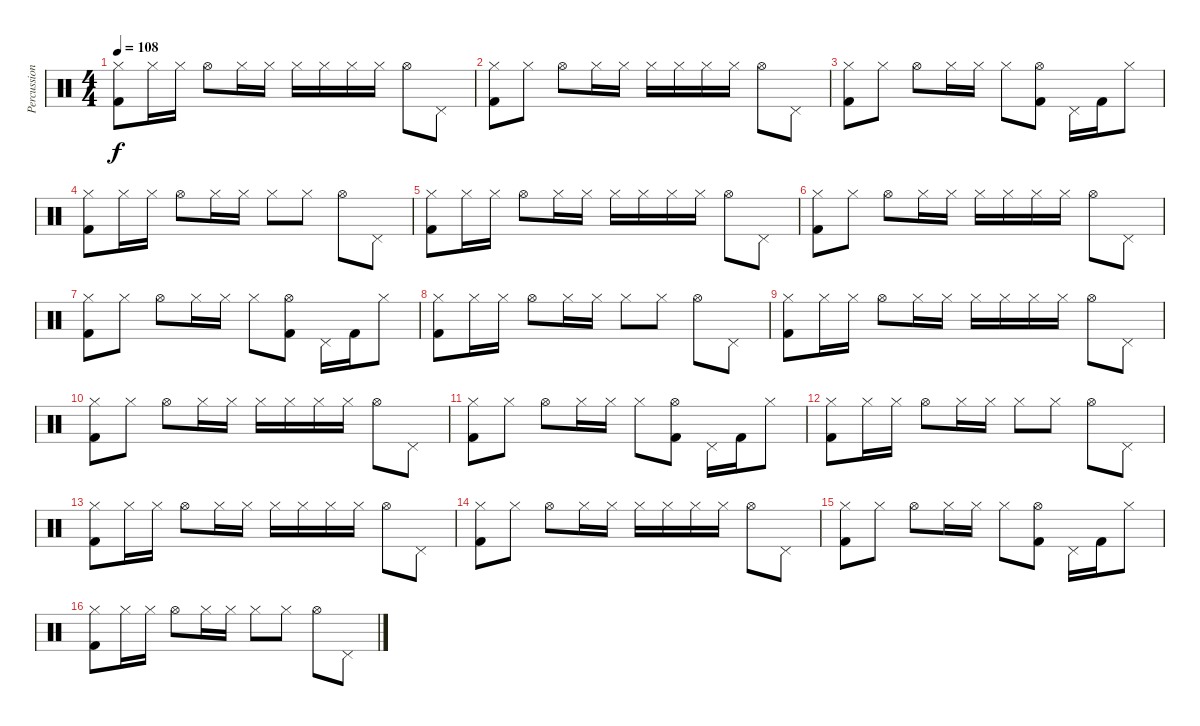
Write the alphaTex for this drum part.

\track ("Percussion" "Percussion") {instrument percussion}
\staff {score}
\articulation defaults
\ts (4 4)
\tempo 108
\clef neutral
\ks c
("Hi-Hat (closed)" "Kick (hit) 2").8{dy f} "Hi-Hat (closed)".16 "Hi-Hat (closed)".16 "Hi-Hat (open)".8 "Hi-Hat (closed)".16 "Hi-Hat (closed)".16 "Hi-Hat (closed)".16 "Hi-Hat (closed)".16 "Hi-Hat (closed)".16 "Hi-Hat (closed)".16 "Hi-Hat (open)".8 "Pedal Hi-Hat (hit)".8 |
("Hi-Hat (closed)" "Kick (hit) 2").8 "Hi-Hat (closed)".8 "Hi-Hat (open)".8 "Hi-Hat (closed)".16 "Hi-Hat (closed)".16 "Hi-Hat (closed)".16 "Hi-Hat (closed)".16 "Hi-Hat (closed)".16 "Hi-Hat (closed)".16 "Hi-Hat (open)".8 "Pedal Hi-Hat (hit)".8 |
("Hi-Hat (closed)" "Kick (hit) 2").8 "Hi-Hat (closed)".8 "Hi-Hat (open)".8 "Hi-Hat (closed)".16 "Hi-Hat (closed)".16 "Hi-Hat (closed)".8 ("Hi-Hat (open)" "Kick (hit) 2").8 "Pedal Hi-Hat (hit)".16 "Kick (hit) 2".16 "Hi-Hat (closed)".8 |
("Hi-Hat (closed)" "Kick (hit) 2").8{volume 7} "Hi-Hat (closed)".16 "Hi-Hat (closed)".16 "Hi-Hat (open)".8 "Hi-Hat (closed)".16 "Hi-Hat (closed)".16 "Hi-Hat (closed)".8 "Hi-Hat (closed)".8 "Hi-Hat (open)".8 "Pedal Hi-Hat (hit)".8 |
("Hi-Hat (closed)" "Kick (hit) 2").8 "Hi-Hat (closed)".16 "Hi-Hat (closed)".16 "Hi-Hat (open)".8 "Hi-Hat (closed)".16 "Hi-Hat (closed)".16 "Hi-Hat (closed)".16 "Hi-Hat (closed)".16 "Hi-Hat (closed)".16 "Hi-Hat (closed)".16 "Hi-Hat (open)".8 "Pedal Hi-Hat (hit)".8 |
("Hi-Hat (closed)" "Kick (hit) 2").8 "Hi-Hat (closed)".8 "Hi-Hat (open)".8 "Hi-Hat (closed)".16 "Hi-Hat (closed)".16 "Hi-Hat (closed)".16 "Hi-Hat (closed)".16 "Hi-Hat (closed)".16 "Hi-Hat (closed)".16 "Hi-Hat (open)".8 "Pedal Hi-Hat (hit)".8 |
("Hi-Hat (closed)" "Kick (hit) 2").8 "Hi-Hat (closed)".8 "Hi-Hat (open)".8 "Hi-Hat (closed)".16 "Hi-Hat (closed)".16 "Hi-Hat (closed)".8 ("Hi-Hat (open)" "Kick (hit) 2").8 "Pedal Hi-Hat (hit)".16 "Kick (hit) 2".16 "Hi-Hat (closed)".8 |
("Hi-Hat (closed)" "Kick (hit) 2").8{volume 7} "Hi-Hat (closed)".16 "Hi-Hat (closed)".16 "Hi-Hat (open)".8 "Hi-Hat (closed)".16 "Hi-Hat (closed)".16 "Hi-Hat (closed)".8 "Hi-Hat (closed)".8 "Hi-Hat (open)".8 "Pedal Hi-Hat (hit)".8 |
("Hi-Hat (closed)" "Kick (hit) 2").8 "Hi-Hat (closed)".16 "Hi-Hat (closed)".16 "Hi-Hat (open)".8 "Hi-Hat (closed)".16 "Hi-Hat (closed)".16 "Hi-Hat (closed)".16 "Hi-Hat (closed)".16 "Hi-Hat (closed)".16 "Hi-Hat (closed)".16 "Hi-Hat (open)".8 "Pedal Hi-Hat (hit)".8 |
("Hi-Hat (closed)" "Kick (hit) 2").8 "Hi-Hat (closed)".8 "Hi-Hat (open)".8 "Hi-Hat (closed)".16 "Hi-Hat (closed)".16 "Hi-Hat (closed)".16 "Hi-Hat (closed)".16 "Hi-Hat (closed)".16 "Hi-Hat (closed)".16 "Hi-Hat (open)".8 "Pedal Hi-Hat (hit)".8 |
("Hi-Hat (closed)" "Kick (hit) 2").8 "Hi-Hat (closed)".8 "Hi-Hat (open)".8 "Hi-Hat (closed)".16 "Hi-Hat (closed)".16 "Hi-Hat (closed)".8 ("Hi-Hat (open)" "Kick (hit) 2").8 "Pedal Hi-Hat (hit)".16 "Kick (hit) 2".16 "Hi-Hat (closed)".8 |
("Hi-Hat (closed)" "Kick (hit) 2").8{volume 7} "Hi-Hat (closed)".16 "Hi-Hat (closed)".16 "Hi-Hat (open)".8 "Hi-Hat (closed)".16 "Hi-Hat (closed)".16 "Hi-Hat (closed)".8 "Hi-Hat (closed)".8 "Hi-Hat (open)".8 "Pedal Hi-Hat (hit)".8 |
("Hi-Hat (closed)" "Kick (hit) 2").8 "Hi-Hat (closed)".16 "Hi-Hat (closed)".16 "Hi-Hat (open)".8 "Hi-Hat (closed)".16 "Hi-Hat (closed)".16 "Hi-Hat (closed)".16 "Hi-Hat (closed)".16 "Hi-Hat (closed)".16 "Hi-Hat (closed)".16 "Hi-Hat (open)".8 "Pedal Hi-Hat (hit)".8 |
("Hi-Hat (closed)" "Kick (hit) 2").8 "Hi-Hat (closed)".8 "Hi-Hat (open)".8 "Hi-Hat (closed)".16 "Hi-Hat (closed)".16 "Hi-Hat (closed)".16 "Hi-Hat (closed)".16 "Hi-Hat (closed)".16 "Hi-Hat (closed)".16 "Hi-Hat (open)".8 "Pedal Hi-Hat (hit)".8 |
("Hi-Hat (closed)" "Kick (hit) 2").8 "Hi-Hat (closed)".8 "Hi-Hat (open)".8 "Hi-Hat (closed)".16 "Hi-Hat (closed)".16 "Hi-Hat (closed)".8 ("Hi-Hat (open)" "Kick (hit) 2").8 "Pedal Hi-Hat (hit)".16 "Kick (hit) 2".16 "Hi-Hat (closed)".8 |
("Hi-Hat (closed)" "Kick (hit) 2").8{volume 7} "Hi-Hat (closed)".16 "Hi-Hat (closed)".16 "Hi-Hat (open)".8 "Hi-Hat (closed)".16 "Hi-Hat (closed)".16 "Hi-Hat (closed)".8 "Hi-Hat (closed)".8 "Hi-Hat (open)".8 "Pedal Hi-Hat (hit)".8
